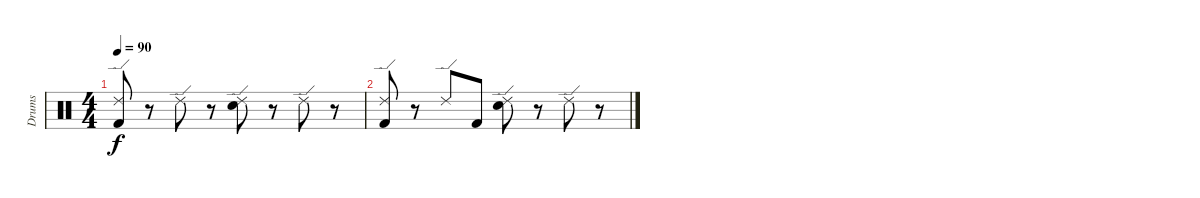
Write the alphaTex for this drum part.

\track ("Drums" "Drums") {instrument percussion}
\staff {score}
\articulation defaults
\ts (4 4)
\tempo 90
\clef neutral
\ks c
("Ride (edge) 2" "Kick (hit) 2").8{dy f} r.8 "Ride (edge) 2".8 r.8 ("Ride (edge) 2" "Snare (hit) 2").8 r.8 "Ride (edge) 2".8 r.8 |
("Ride (edge) 2" "Kick (hit) 2").8 r.8 "Ride (edge) 2".8 "Kick (hit) 2".8 ("Ride (edge) 2" "Snare (hit) 2").8 r.8 "Ride (edge) 2".8 r.8
